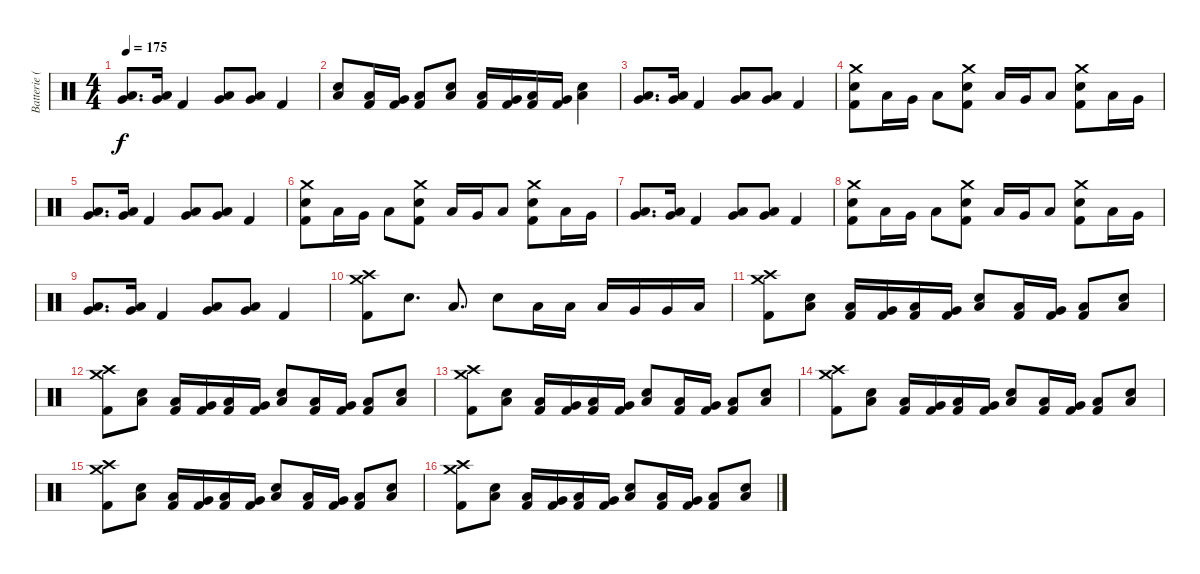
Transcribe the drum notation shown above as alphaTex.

\track ("Batterie (Tré Cool)" "Batterie (") {instrument percussion}
\staff {score}
\articulation defaults
\ts (4 4)
\tempo 175
\clef neutral
\ks c
("Very Low Tom (hit)" "Low Tom (hit)").8{d dy f} ("Very Low Tom (hit)" "Low Tom (hit)").16 "Kick (hit) 2".4 ("Low Floor Tom (hit)" "Very Low Tom (hit)").8 ("Low Floor Tom (hit)" "Very Low Tom (hit)").8 "Kick (hit) 2".4 |
("Low Floor Tom (hit)" "Electric Snare (hit)").8 ("Low Floor Tom (hit)" "Kick (hit) 2").16 ("Very Low Tom (hit)" "Kick (hit) 2").16 ("Low Floor Tom (hit)" "Kick (hit) 2").8 ("Low Floor Tom (hit)" "Electric Snare (hit)").8 ("Low Floor Tom (hit)" "Kick (hit) 2").16 ("Very Low Tom (hit)" "Kick (hit) 2").16 ("Low Floor Tom (hit)" "Kick (hit) 2").16 ("Very Low Tom (hit)" "Kick (hit) 2").16 ("Low Floor Tom (hit)" "Electric Snare (hit)").4 |
("Very Low Tom (hit)" "Low Tom (hit)").8{d} ("Very Low Tom (hit)" "Low Tom (hit)").16 "Kick (hit) 2".4 ("Low Floor Tom (hit)" "Very Low Tom (hit)").8 ("Low Floor Tom (hit)" "Very Low Tom (hit)").8 "Kick (hit) 2".4 |
("Crash medium (hit)" "Electric Snare (hit)" "Kick (hit) 2").8 "Low Floor Tom (hit)".16 "Very Low Tom (hit)".16 "Low Floor Tom (hit)".8 ("Crash medium (hit)" "Electric Snare (hit)" "Kick (hit) 2").8 "Low Floor Tom (hit)".16 "Very Low Tom (hit)".16 "Low Floor Tom (hit)".8 ("Crash medium (hit)" "Electric Snare (hit)" "Kick (hit) 2").8 "Low Floor Tom (hit)".16 "Very Low Tom (hit)".16 |
("Very Low Tom (hit)" "Low Tom (hit)").8{d} ("Very Low Tom (hit)" "Low Tom (hit)").16 "Kick (hit) 2".4 ("Low Floor Tom (hit)" "Very Low Tom (hit)").8 ("Low Floor Tom (hit)" "Very Low Tom (hit)").8 "Kick (hit) 2".4 |
("Crash medium (hit)" "Electric Snare (hit)" "Kick (hit) 2").8 "Low Floor Tom (hit)".16 "Very Low Tom (hit)".16 "Low Floor Tom (hit)".8 ("Crash medium (hit)" "Electric Snare (hit)" "Kick (hit) 2").8 "Low Floor Tom (hit)".16 "Very Low Tom (hit)".16 "Low Floor Tom (hit)".8 ("Crash medium (hit)" "Electric Snare (hit)" "Kick (hit) 2").8 "Low Floor Tom (hit)".16 "Very Low Tom (hit)".16 |
("Very Low Tom (hit)" "Low Tom (hit)").8{d} ("Very Low Tom (hit)" "Low Tom (hit)").16 "Kick (hit) 2".4 ("Low Floor Tom (hit)" "Very Low Tom (hit)").8 ("Low Floor Tom (hit)" "Very Low Tom (hit)").8 "Kick (hit) 2".4 |
("Crash medium (hit)" "Electric Snare (hit)" "Kick (hit) 2").8 "Low Floor Tom (hit)".16 "Very Low Tom (hit)".16 "Low Floor Tom (hit)".8 ("Crash medium (hit)" "Electric Snare (hit)" "Kick (hit) 2").8 "Low Floor Tom (hit)".16 "Very Low Tom (hit)".16 "Low Floor Tom (hit)".8 ("Crash medium (hit)" "Electric Snare (hit)" "Kick (hit) 2").8 "Low Floor Tom (hit)".16 "Very Low Tom (hit)".16 |
("Very Low Tom (hit)" "Low Tom (hit)").8{d} ("Very Low Tom (hit)" "Low Tom (hit)").16 "Kick (hit) 2".4 ("Low Floor Tom (hit)" "Very Low Tom (hit)").8 ("Low Floor Tom (hit)" "Very Low Tom (hit)").8 "Kick (hit) 2".4 |
("Crash medium (hit)" "Crash high (hit)" "Kick (hit) 2").8 "Electric Snare (hit)".8{d} "Low Floor Tom (hit)".8{d} "Electric Snare (hit)".8 "Low Tom (hit)".16 "Low Tom (hit)".16 "Low Tom (hit)".16 "Very Low Tom (hit)".16 "Very Low Tom (hit)".16 "Low Floor Tom (hit)".16 |
("Crash medium (hit)" "Crash high (hit)" "Kick (hit) 2").8 ("Low Floor Tom (hit)" "Electric Snare (hit)").8 ("Low Floor Tom (hit)" "Kick (hit) 2").16 ("Very Low Tom (hit)" "Kick (hit) 2").16 ("Low Floor Tom (hit)" "Kick (hit) 2").16 ("Very Low Tom (hit)" "Kick (hit) 2").16 ("Low Floor Tom (hit)" "Electric Snare (hit)").8 ("Low Floor Tom (hit)" "Kick (hit) 2").16 ("Very Low Tom (hit)" "Kick (hit) 2").16 ("Low Floor Tom (hit)" "Kick (hit) 2").8 ("Low Floor Tom (hit)" "Electric Snare (hit)").8 |
("Crash medium (hit)" "Crash high (hit)" "Kick (hit) 2").8 ("Low Floor Tom (hit)" "Electric Snare (hit)").8 ("Low Floor Tom (hit)" "Kick (hit) 2").16 ("Very Low Tom (hit)" "Kick (hit) 2").16 ("Low Floor Tom (hit)" "Kick (hit) 2").16 ("Very Low Tom (hit)" "Kick (hit) 2").16 ("Low Floor Tom (hit)" "Electric Snare (hit)").8 ("Low Floor Tom (hit)" "Kick (hit) 2").16 ("Very Low Tom (hit)" "Kick (hit) 2").16 ("Low Floor Tom (hit)" "Kick (hit) 2").8 ("Low Floor Tom (hit)" "Electric Snare (hit)").8 |
("Crash medium (hit)" "Crash high (hit)" "Kick (hit) 2").8 ("Low Floor Tom (hit)" "Electric Snare (hit)").8 ("Low Floor Tom (hit)" "Kick (hit) 2").16 ("Very Low Tom (hit)" "Kick (hit) 2").16 ("Low Floor Tom (hit)" "Kick (hit) 2").16 ("Very Low Tom (hit)" "Kick (hit) 2").16 ("Low Floor Tom (hit)" "Electric Snare (hit)").8 ("Low Floor Tom (hit)" "Kick (hit) 2").16 ("Very Low Tom (hit)" "Kick (hit) 2").16 ("Low Floor Tom (hit)" "Kick (hit) 2").8 ("Low Floor Tom (hit)" "Electric Snare (hit)").8 |
("Crash medium (hit)" "Crash high (hit)" "Kick (hit) 2").8 ("Low Floor Tom (hit)" "Electric Snare (hit)").8 ("Low Floor Tom (hit)" "Kick (hit) 2").16 ("Very Low Tom (hit)" "Kick (hit) 2").16 ("Low Floor Tom (hit)" "Kick (hit) 2").16 ("Very Low Tom (hit)" "Kick (hit) 2").16 ("Low Floor Tom (hit)" "Electric Snare (hit)").8 ("Low Floor Tom (hit)" "Kick (hit) 2").16 ("Very Low Tom (hit)" "Kick (hit) 2").16 ("Low Floor Tom (hit)" "Kick (hit) 2").8 ("Low Floor Tom (hit)" "Electric Snare (hit)").8 |
("Crash medium (hit)" "Crash high (hit)" "Kick (hit) 2").8 ("Low Floor Tom (hit)" "Electric Snare (hit)").8 ("Low Floor Tom (hit)" "Kick (hit) 2").16 ("Very Low Tom (hit)" "Kick (hit) 2").16 ("Low Floor Tom (hit)" "Kick (hit) 2").16 ("Very Low Tom (hit)" "Kick (hit) 2").16 ("Low Floor Tom (hit)" "Electric Snare (hit)").8 ("Low Floor Tom (hit)" "Kick (hit) 2").16 ("Very Low Tom (hit)" "Kick (hit) 2").16 ("Low Floor Tom (hit)" "Kick (hit) 2").8 ("Low Floor Tom (hit)" "Electric Snare (hit)").8 |
("Crash medium (hit)" "Crash high (hit)" "Kick (hit) 2").8 ("Low Floor Tom (hit)" "Electric Snare (hit)").8 ("Low Floor Tom (hit)" "Kick (hit) 2").16 ("Very Low Tom (hit)" "Kick (hit) 2").16 ("Low Floor Tom (hit)" "Kick (hit) 2").16 ("Very Low Tom (hit)" "Kick (hit) 2").16 ("Low Floor Tom (hit)" "Electric Snare (hit)").8 ("Low Floor Tom (hit)" "Kick (hit) 2").16 ("Very Low Tom (hit)" "Kick (hit) 2").16 ("Low Floor Tom (hit)" "Kick (hit) 2").8 ("Low Floor Tom (hit)" "Electric Snare (hit)").8
